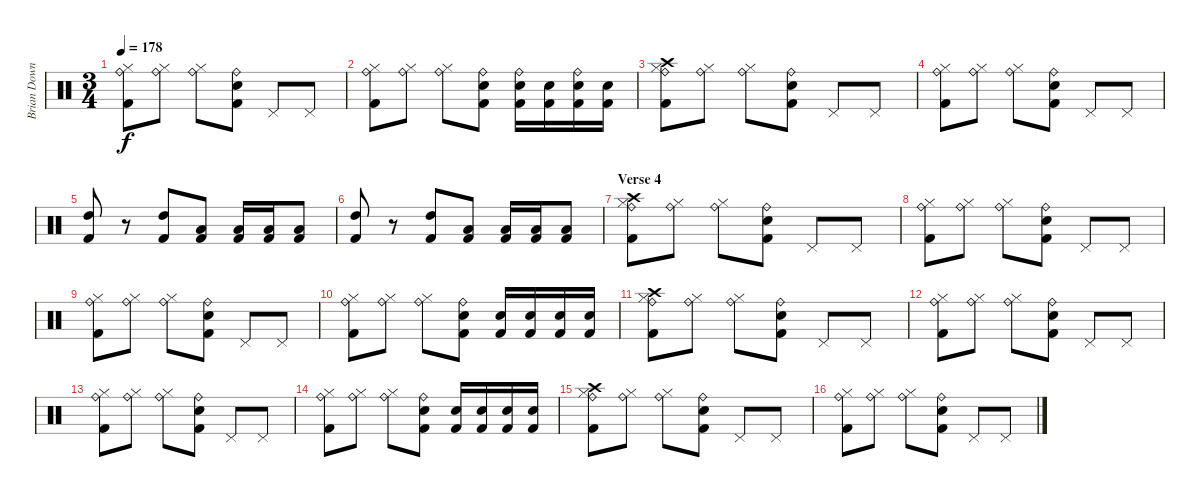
\track ("Brian Downey" "Brian Down") {instrument percussion}
\staff {score}
\articulation defaults
\ts (3 4)
\tempo 178
\clef neutral
\ks c
("Ride (bell)" "Hi-Hat (closed)" "Kick (hit) 2").8{dy f} ("Ride (bell)" "Hi-Hat (closed)").8 ("Ride (bell)" "Hi-Hat (closed)").8 ("Ride (bell)" "Snare (hit) 2" "Kick (hit) 2").8 "Pedal Hi-Hat (hit)".8 "Pedal Hi-Hat (hit)".8 |
("Ride (bell)" "Hi-Hat (closed)" "Kick (hit) 2").8 ("Ride (bell)" "Hi-Hat (closed)").8 ("Ride (bell)" "Hi-Hat (closed)").8 ("Ride (bell)" "Snare (hit) 2" "Kick (hit) 2").8 ("Ride (bell)" "Snare (hit) 2" "Kick (hit) 2").16 ("Snare (hit) 2" "Kick (hit) 2").16 ("Ride (bell)" "Snare (hit) 2" "Kick (hit) 2").16 ("Snare (hit) 2" "Kick (hit) 2").16 |
("Crash high (hit)" "Ride (bell)" "Hi-Hat (closed)" "Kick (hit) 2").8 ("Ride (bell)" "Hi-Hat (closed)").8 ("Ride (bell)" "Hi-Hat (closed)").8 ("Ride (bell)" "Snare (hit) 2" "Kick (hit) 2").8 "Pedal Hi-Hat (hit)".8 "Pedal Hi-Hat (hit)".8 |
("Ride (bell)" "Hi-Hat (closed)" "Kick (hit) 2").8 ("Ride (bell)" "Hi-Hat (closed)").8 ("Ride (bell)" "Hi-Hat (closed)").8 ("Ride (bell)" "Snare (hit) 2" "Kick (hit) 2").8 "Pedal Hi-Hat (hit)".8 "Pedal Hi-Hat (hit)".8 |
("High Tom (hit)" "Kick (hit) 2").8 r.8 ("High Tom (hit)" "Kick (hit) 2").8 ("Low Tom (hit)" "Kick (hit) 2").8 ("Low Tom (hit)" "Kick (hit) 2").16 ("Low Tom (hit)" "Kick (hit) 2").16 ("Low Tom (hit)" "Kick (hit) 2").8 |
("High Tom (hit)" "Kick (hit) 2").8 r.8 ("High Tom (hit)" "Kick (hit) 2").8 ("Low Tom (hit)" "Kick (hit) 2").8 ("Low Tom (hit)" "Kick (hit) 2").16 ("Low Tom (hit)" "Kick (hit) 2").16 ("Low Tom (hit)" "Kick (hit) 2").8 |
\section ("" "Verse 4")
("Crash high (hit)" "Ride (bell)" "Hi-Hat (closed)" "Kick (hit) 2").8 ("Ride (bell)" "Hi-Hat (closed)").8 ("Ride (bell)" "Hi-Hat (closed)").8 ("Ride (bell)" "Snare (hit) 2" "Kick (hit) 2").8 "Pedal Hi-Hat (hit)".8 "Pedal Hi-Hat (hit)".8 |
("Ride (bell)" "Hi-Hat (closed)" "Kick (hit) 2").8 ("Ride (bell)" "Hi-Hat (closed)").8 ("Ride (bell)" "Hi-Hat (closed)").8 ("Ride (bell)" "Snare (hit) 2" "Kick (hit) 2").8 "Pedal Hi-Hat (hit)".8 "Pedal Hi-Hat (hit)".8 |
("Ride (bell)" "Hi-Hat (closed)" "Kick (hit) 2").8 ("Ride (bell)" "Hi-Hat (closed)").8 ("Ride (bell)" "Hi-Hat (closed)").8 ("Ride (bell)" "Snare (hit) 2" "Kick (hit) 2").8 "Pedal Hi-Hat (hit)".8 "Pedal Hi-Hat (hit)".8 |
("Ride (bell)" "Hi-Hat (closed)" "Kick (hit) 2").8 ("Ride (bell)" "Hi-Hat (closed)").8 ("Ride (bell)" "Hi-Hat (closed)").8 ("Ride (bell)" "Snare (hit) 2" "Kick (hit) 2").8 ("Snare (hit) 2" "Kick (hit) 2").16 ("Snare (hit) 2" "Kick (hit) 2").16 ("Snare (hit) 2" "Kick (hit) 2").16 ("Snare (hit) 2" "Kick (hit) 2").16 |
("Crash high (hit)" "Ride (bell)" "Hi-Hat (closed)" "Kick (hit) 2").8 ("Ride (bell)" "Hi-Hat (closed)").8 ("Ride (bell)" "Hi-Hat (closed)").8 ("Ride (bell)" "Snare (hit) 2" "Kick (hit) 2").8 "Pedal Hi-Hat (hit)".8 "Pedal Hi-Hat (hit)".8 |
("Ride (bell)" "Hi-Hat (closed)" "Kick (hit) 2").8 ("Ride (bell)" "Hi-Hat (closed)").8 ("Ride (bell)" "Hi-Hat (closed)").8 ("Ride (bell)" "Snare (hit) 2" "Kick (hit) 2").8 "Pedal Hi-Hat (hit)".8 "Pedal Hi-Hat (hit)".8 |
("Ride (bell)" "Hi-Hat (closed)" "Kick (hit) 2").8 ("Ride (bell)" "Hi-Hat (closed)").8 ("Ride (bell)" "Hi-Hat (closed)").8 ("Ride (bell)" "Snare (hit) 2" "Kick (hit) 2").8 "Pedal Hi-Hat (hit)".8 "Pedal Hi-Hat (hit)".8 |
("Ride (bell)" "Hi-Hat (closed)" "Kick (hit) 2").8 ("Ride (bell)" "Hi-Hat (closed)").8 ("Ride (bell)" "Hi-Hat (closed)").8 ("Ride (bell)" "Snare (hit) 2" "Kick (hit) 2").8 ("Snare (hit) 2" "Kick (hit) 2").16 ("Snare (hit) 2" "Kick (hit) 2").16 ("Snare (hit) 2" "Kick (hit) 2").16 ("Snare (hit) 2" "Kick (hit) 2").16 |
("Crash high (hit)" "Ride (bell)" "Hi-Hat (closed)" "Kick (hit) 2").8 ("Ride (bell)" "Hi-Hat (closed)").8 ("Ride (bell)" "Hi-Hat (closed)").8 ("Ride (bell)" "Snare (hit) 2" "Kick (hit) 2").8 "Pedal Hi-Hat (hit)".8 "Pedal Hi-Hat (hit)".8 |
("Ride (bell)" "Hi-Hat (closed)" "Kick (hit) 2").8 ("Ride (bell)" "Hi-Hat (closed)").8 ("Ride (bell)" "Hi-Hat (closed)").8 ("Ride (bell)" "Snare (hit) 2" "Kick (hit) 2").8 "Pedal Hi-Hat (hit)".8 "Pedal Hi-Hat (hit)".8
